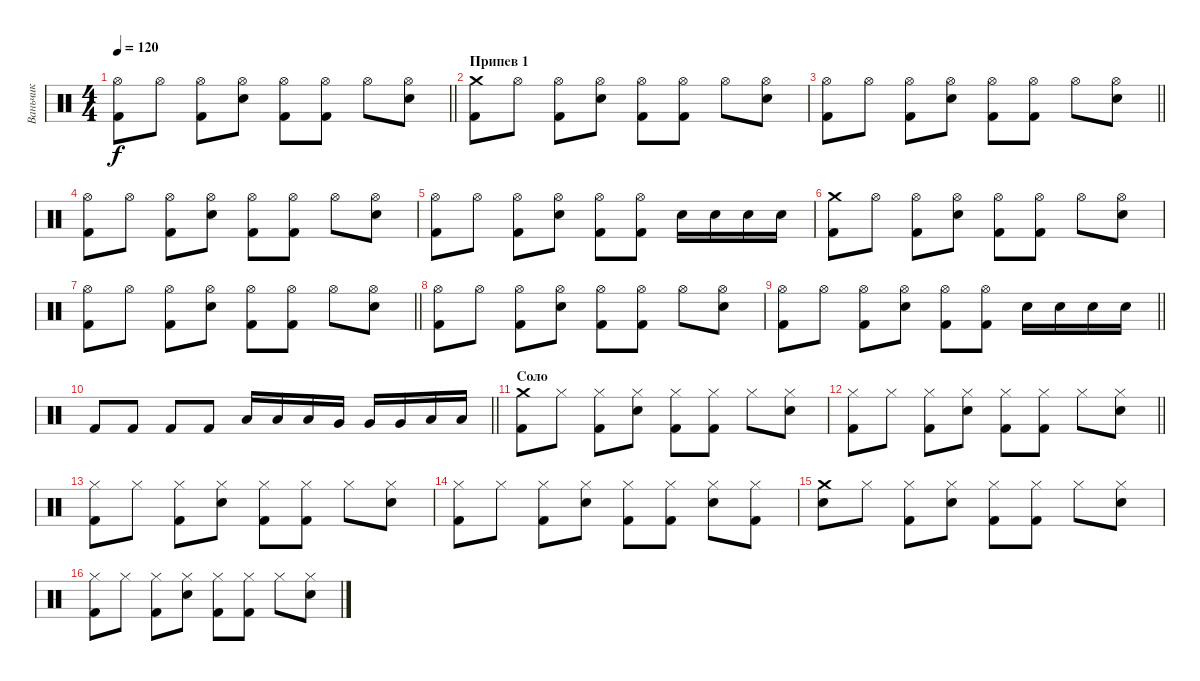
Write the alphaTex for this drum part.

\track ("Ваньчик" "Ваньчик") {instrument percussion}
\staff {score}
\articulation defaults
\ts (4 4)
\tempo 120
\clef neutral
\barLineRight lightlight
\ks c
("Hi-Hat (open)" "Kick (hit) 2").8{dy f} "Hi-Hat (open)".8 ("Hi-Hat (open)" "Kick (hit) 2").8 ("Hi-Hat (open)" "Snare (hit) 2").8 ("Hi-Hat (open)" "Kick (hit) 2").8 ("Hi-Hat (open)" "Kick (hit) 2").8 "Hi-Hat (open)".8 ("Hi-Hat (open)" "Snare (hit) 2").8 |
\section ("" "Припев 1")
("Crash medium (hit)" "Kick (hit) 2").8 "Hi-Hat (open)".8 ("Hi-Hat (open)" "Kick (hit) 2").8 ("Hi-Hat (open)" "Snare (hit) 2").8 ("Hi-Hat (open)" "Kick (hit) 2").8 ("Hi-Hat (open)" "Kick (hit) 2").8 "Hi-Hat (open)".8 ("Hi-Hat (open)" "Snare (hit) 2").8 |
\barLineRight lightlight
("Hi-Hat (open)" "Kick (hit) 2").8 "Hi-Hat (open)".8 ("Hi-Hat (open)" "Kick (hit) 2").8 ("Hi-Hat (open)" "Snare (hit) 2").8 ("Hi-Hat (open)" "Kick (hit) 2").8 ("Hi-Hat (open)" "Kick (hit) 2").8 "Hi-Hat (open)".8 ("Hi-Hat (open)" "Snare (hit) 2").8 |
("Hi-Hat (open)" "Kick (hit) 2").8 "Hi-Hat (open)".8 ("Hi-Hat (open)" "Kick (hit) 2").8 ("Hi-Hat (open)" "Snare (hit) 2").8 ("Hi-Hat (open)" "Kick (hit) 2").8 ("Hi-Hat (open)" "Kick (hit) 2").8 "Hi-Hat (open)".8 ("Hi-Hat (open)" "Snare (hit) 2").8 |
("Hi-Hat (open)" "Kick (hit) 2").8 "Hi-Hat (open)".8 ("Hi-Hat (open)" "Kick (hit) 2").8 ("Hi-Hat (open)" "Snare (hit) 2").8 ("Hi-Hat (open)" "Kick (hit) 2").8 ("Hi-Hat (open)" "Kick (hit) 2").8 "Snare (hit) 2".16 "Snare (hit) 2".16 "Snare (hit) 2".16 "Snare (hit) 2".16 |
("Crash medium (hit)" "Kick (hit) 2").8 "Hi-Hat (open)".8 ("Hi-Hat (open)" "Kick (hit) 2").8 ("Hi-Hat (open)" "Snare (hit) 2").8 ("Hi-Hat (open)" "Kick (hit) 2").8 ("Hi-Hat (open)" "Kick (hit) 2").8 "Hi-Hat (open)".8 ("Hi-Hat (open)" "Snare (hit) 2").8 |
\barLineRight lightlight
("Hi-Hat (open)" "Kick (hit) 2").8 "Hi-Hat (open)".8 ("Hi-Hat (open)" "Kick (hit) 2").8 ("Hi-Hat (open)" "Snare (hit) 2").8 ("Hi-Hat (open)" "Kick (hit) 2").8 ("Hi-Hat (open)" "Kick (hit) 2").8 "Hi-Hat (open)".8 ("Hi-Hat (open)" "Snare (hit) 2").8 |
("Hi-Hat (open)" "Kick (hit) 2").8 "Hi-Hat (open)".8 ("Hi-Hat (open)" "Kick (hit) 2").8 ("Hi-Hat (open)" "Snare (hit) 2").8 ("Hi-Hat (open)" "Kick (hit) 2").8 ("Hi-Hat (open)" "Kick (hit) 2").8 "Hi-Hat (open)".8 ("Hi-Hat (open)" "Snare (hit) 2").8 |
\barLineRight lightlight
("Hi-Hat (open)" "Kick (hit) 2").8 "Hi-Hat (open)".8 ("Hi-Hat (open)" "Kick (hit) 2").8 ("Hi-Hat (open)" "Snare (hit) 2").8 ("Hi-Hat (open)" "Kick (hit) 2").8 ("Hi-Hat (open)" "Kick (hit) 2").8 "Snare (hit) 2".16 "Snare (hit) 2".16 "Snare (hit) 2".16 "Snare (hit) 2".16 |
\barLineRight lightlight "Kick (hit) 2".8 "Kick (hit) 2".8 "Kick (hit) 2".8 "Kick (hit) 2".8 "Low Floor Tom (hit)".16 "Low Floor Tom (hit)".16 "Low Floor Tom (hit)".16 "Very Low Tom (hit)".16 "Very Low Tom (hit)".16 "Very Low Tom (hit)".16 "Low Tom (hit)".16 "Low Tom (hit)".16
|
\section ("" "Соло")
("Crash medium (hit)" "Kick (hit) 2").8 "Hi-Hat (closed)".8 ("Hi-Hat (closed)" "Kick (hit) 2").8 ("Hi-Hat (closed)" "Snare (hit) 2").8 ("Hi-Hat (closed)" "Kick (hit) 2").8 ("Hi-Hat (closed)" "Kick (hit) 2").8 "Hi-Hat (closed)".8 ("Hi-Hat (closed)" "Snare (hit) 2").8 |
\barLineRight lightlight
("Hi-Hat (closed)" "Kick (hit) 2").8 "Hi-Hat (closed)".8 ("Hi-Hat (closed)" "Kick (hit) 2").8 ("Hi-Hat (closed)" "Snare (hit) 2").8 ("Hi-Hat (closed)" "Kick (hit) 2").8 ("Hi-Hat (closed)" "Kick (hit) 2").8 "Hi-Hat (closed)".8 ("Hi-Hat (closed)" "Snare (hit) 2").8 |
("Hi-Hat (closed)" "Kick (hit) 2").8 "Hi-Hat (closed)".8 ("Hi-Hat (closed)" "Kick (hit) 2").8 ("Hi-Hat (closed)" "Snare (hit) 2").8 ("Hi-Hat (closed)" "Kick (hit) 2").8 ("Hi-Hat (closed)" "Kick (hit) 2").8 "Hi-Hat (closed)".8 ("Hi-Hat (closed)" "Snare (hit) 2").8 |
("Hi-Hat (closed)" "Kick (hit) 2").8 "Hi-Hat (closed)".8 ("Hi-Hat (closed)" "Kick (hit) 2").8 ("Hi-Hat (closed)" "Snare (hit) 2").8 ("Hi-Hat (closed)" "Kick (hit) 2").8 ("Hi-Hat (closed)" "Kick (hit) 2").8 ("Hi-Hat (closed)" "Snare (hit) 2").8 ("Hi-Hat (closed)" "Kick (hit) 2").8 |
("Crash medium (hit)" "Snare (hit) 2").8 "Hi-Hat (closed)".8 ("Hi-Hat (closed)" "Kick (hit) 2").8 ("Hi-Hat (closed)" "Snare (hit) 2").8 ("Hi-Hat (closed)" "Kick (hit) 2").8 ("Hi-Hat (closed)" "Kick (hit) 2").8 "Hi-Hat (closed)".8 ("Hi-Hat (closed)" "Snare (hit) 2").8 |
("Hi-Hat (closed)" "Kick (hit) 2").8 "Hi-Hat (closed)".8 ("Hi-Hat (closed)" "Kick (hit) 2").8 ("Hi-Hat (closed)" "Snare (hit) 2").8 ("Hi-Hat (closed)" "Kick (hit) 2").8 ("Hi-Hat (closed)" "Kick (hit) 2").8 "Hi-Hat (closed)".8 ("Hi-Hat (closed)" "Snare (hit) 2").8
